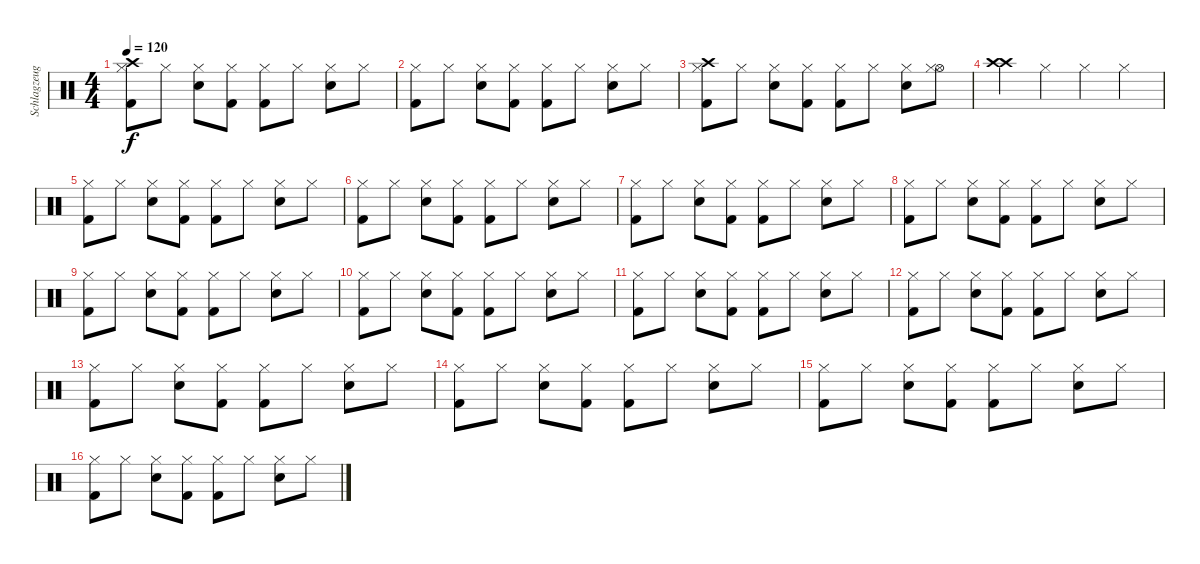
\track ("Schlagzeug" "Schlagzeug") {instrument percussion}
\staff {score}
\articulation defaults
\ts (4 4)
\tempo 120
\clef neutral
\ks c
("Crash high (hit)" "Hi-Hat (closed)" "Kick (hit) 2").8{dy f} "Hi-Hat (closed)".8 ("Hi-Hat (closed)" "Electric Snare (hit)").8 ("Hi-Hat (closed)" "Kick (hit) 2").8 ("Hi-Hat (closed)" "Kick (hit) 2").8 "Hi-Hat (closed)".8 ("Hi-Hat (closed)" "Electric Snare (hit)").8 "Hi-Hat (closed)".8 |
("Hi-Hat (closed)" "Kick (hit) 2").8 "Hi-Hat (closed)".8 ("Hi-Hat (closed)" "Electric Snare (hit)").8 ("Hi-Hat (closed)" "Kick (hit) 2").8 ("Hi-Hat (closed)" "Kick (hit) 2").8 "Hi-Hat (closed)".8 ("Hi-Hat (closed)" "Electric Snare (hit)").8 "Hi-Hat (closed)".8 |
("Crash high (hit)" "Hi-Hat (closed)" "Kick (hit) 2").8 "Hi-Hat (closed)".8 ("Hi-Hat (closed)" "Electric Snare (hit)").8 ("Hi-Hat (closed)" "Kick (hit) 2").8 ("Hi-Hat (closed)" "Kick (hit) 2").8 "Hi-Hat (closed)".8 ("Hi-Hat (closed)" "Electric Snare (hit)").8 ("Hi-Hat (open)" "Hi-Hat (closed)").8 |
("Crash high (hit)" "Crash high (hit)").4 "Hi-Hat (closed)".4 "Hi-Hat (closed)".4 "Hi-Hat (closed)".4 |
("Hi-Hat (closed)" "Kick (hit) 2").8 "Hi-Hat (closed)".8 ("Hi-Hat (closed)" "Electric Snare (hit)").8 ("Hi-Hat (closed)" "Kick (hit) 2").8 ("Hi-Hat (closed)" "Kick (hit) 2").8 "Hi-Hat (closed)".8 ("Hi-Hat (closed)" "Electric Snare (hit)").8 "Hi-Hat (closed)".8 |
("Hi-Hat (closed)" "Kick (hit) 2").8 "Hi-Hat (closed)".8 ("Hi-Hat (closed)" "Electric Snare (hit)").8 ("Hi-Hat (closed)" "Kick (hit) 2").8 ("Hi-Hat (closed)" "Kick (hit) 2").8 "Hi-Hat (closed)".8 ("Hi-Hat (closed)" "Electric Snare (hit)").8 "Hi-Hat (closed)".8 |
("Hi-Hat (closed)" "Kick (hit) 2").8 "Hi-Hat (closed)".8 ("Hi-Hat (closed)" "Electric Snare (hit)").8 ("Hi-Hat (closed)" "Kick (hit) 2").8 ("Hi-Hat (closed)" "Kick (hit) 2").8 "Hi-Hat (closed)".8 ("Hi-Hat (closed)" "Electric Snare (hit)").8 "Hi-Hat (closed)".8 |
("Hi-Hat (closed)" "Kick (hit) 2").8 "Hi-Hat (closed)".8 ("Hi-Hat (closed)" "Electric Snare (hit)").8 ("Hi-Hat (closed)" "Kick (hit) 2").8 ("Hi-Hat (closed)" "Kick (hit) 2").8 "Hi-Hat (closed)".8 ("Hi-Hat (closed)" "Electric Snare (hit)").8 "Hi-Hat (closed)".8 |
("Hi-Hat (closed)" "Kick (hit) 2").8 "Hi-Hat (closed)".8 ("Hi-Hat (closed)" "Electric Snare (hit)").8 ("Hi-Hat (closed)" "Kick (hit) 2").8 ("Hi-Hat (closed)" "Kick (hit) 2").8 "Hi-Hat (closed)".8 ("Hi-Hat (closed)" "Electric Snare (hit)").8 "Hi-Hat (closed)".8 |
("Hi-Hat (closed)" "Kick (hit) 2").8 "Hi-Hat (closed)".8 ("Hi-Hat (closed)" "Electric Snare (hit)").8 ("Hi-Hat (closed)" "Kick (hit) 2").8 ("Hi-Hat (closed)" "Kick (hit) 2").8 "Hi-Hat (closed)".8 ("Hi-Hat (closed)" "Electric Snare (hit)").8 "Hi-Hat (closed)".8 |
("Hi-Hat (closed)" "Kick (hit) 2").8 "Hi-Hat (closed)".8 ("Hi-Hat (closed)" "Electric Snare (hit)").8 ("Hi-Hat (closed)" "Kick (hit) 2").8 ("Hi-Hat (closed)" "Kick (hit) 2").8 "Hi-Hat (closed)".8 ("Hi-Hat (closed)" "Electric Snare (hit)").8 "Hi-Hat (closed)".8 |
("Hi-Hat (closed)" "Kick (hit) 2").8 "Hi-Hat (closed)".8 ("Hi-Hat (closed)" "Electric Snare (hit)").8 ("Hi-Hat (closed)" "Kick (hit) 2").8 ("Hi-Hat (closed)" "Kick (hit) 2").8 "Hi-Hat (closed)".8 ("Hi-Hat (closed)" "Electric Snare (hit)").8 "Hi-Hat (closed)".8 |
("Hi-Hat (closed)" "Kick (hit) 2").8 "Hi-Hat (closed)".8 ("Hi-Hat (closed)" "Electric Snare (hit)").8 ("Hi-Hat (closed)" "Kick (hit) 2").8 ("Hi-Hat (closed)" "Kick (hit) 2").8 "Hi-Hat (closed)".8 ("Hi-Hat (closed)" "Electric Snare (hit)").8 "Hi-Hat (closed)".8 |
("Hi-Hat (closed)" "Kick (hit) 2").8 "Hi-Hat (closed)".8 ("Hi-Hat (closed)" "Electric Snare (hit)").8 ("Hi-Hat (closed)" "Kick (hit) 2").8 ("Hi-Hat (closed)" "Kick (hit) 2").8 "Hi-Hat (closed)".8 ("Hi-Hat (closed)" "Electric Snare (hit)").8 "Hi-Hat (closed)".8 |
("Hi-Hat (closed)" "Kick (hit) 2").8 "Hi-Hat (closed)".8 ("Hi-Hat (closed)" "Electric Snare (hit)").8 ("Hi-Hat (closed)" "Kick (hit) 2").8 ("Hi-Hat (closed)" "Kick (hit) 2").8 "Hi-Hat (closed)".8 ("Hi-Hat (closed)" "Electric Snare (hit)").8 "Hi-Hat (closed)".8 |
("Hi-Hat (closed)" "Kick (hit) 2").8 "Hi-Hat (closed)".8 ("Hi-Hat (closed)" "Electric Snare (hit)").8 ("Hi-Hat (closed)" "Kick (hit) 2").8 ("Hi-Hat (closed)" "Kick (hit) 2").8 "Hi-Hat (closed)".8 ("Hi-Hat (closed)" "Electric Snare (hit)").8 "Hi-Hat (closed)".8
